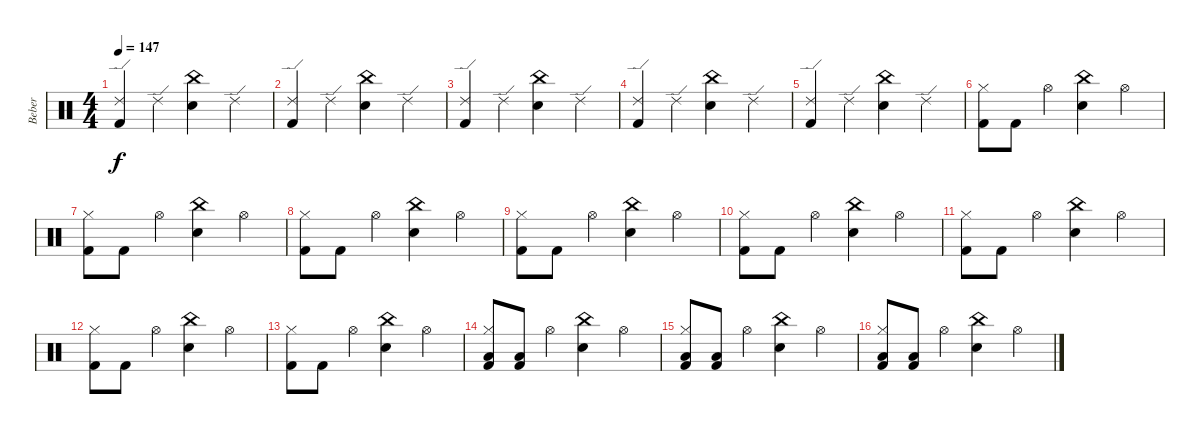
\track ("Beber" "Beber") {instrument percussion}
\staff {score}
\articulation defaults
\ts (4 4)
\tempo 147
\clef neutral
\ks c
("Ride (edge) 2" "Kick (hit) 2").4{dy f} "Ride (edge) 2".4 ("China (hit)" "Snare (hit) 2").4 "Ride (edge) 2".4 |
("Ride (edge) 2" "Kick (hit) 2").4 "Ride (edge) 2".4 ("China (hit)" "Snare (hit) 2").4 "Ride (edge) 2".4 |
("Ride (edge) 2" "Kick (hit) 2").4 "Ride (edge) 2".4 ("China (hit)" "Snare (hit) 2").4 "Ride (edge) 2".4 |
("Ride (edge) 2" "Kick (hit) 2").4 "Ride (edge) 2".4 ("China (hit)" "Snare (hit) 2").4 "Ride (edge) 2".4 |
("Ride (edge) 2" "Kick (hit) 2").4 "Ride (edge) 2".4 ("China (hit)" "Snare (hit) 2").4 "Ride (edge) 2".4 |
("Hi-Hat (closed)" "Kick (hit) 2").8 "Kick (hit) 2".8 "Hi-Hat (open)".4 ("China (hit)" "Snare (hit) 2").4 "Hi-Hat (open)".4 |
("Hi-Hat (closed)" "Kick (hit) 2").8 "Kick (hit) 2".8 "Hi-Hat (open)".4 ("China (hit)" "Snare (hit) 2").4 "Hi-Hat (open)".4 |
("Hi-Hat (closed)" "Kick (hit) 2").8 "Kick (hit) 2".8 "Hi-Hat (open)".4 ("China (hit)" "Snare (hit) 2").4 "Hi-Hat (open)".4 |
("Hi-Hat (closed)" "Kick (hit) 2").8 "Kick (hit) 2".8 "Hi-Hat (open)".4 ("China (hit)" "Snare (hit) 2").4 "Hi-Hat (open)".4 |
("Hi-Hat (closed)" "Kick (hit) 2").8 "Kick (hit) 2".8 "Hi-Hat (open)".4 ("China (hit)" "Snare (hit) 2").4 "Hi-Hat (open)".4 |
("Hi-Hat (closed)" "Kick (hit) 2").8 "Kick (hit) 2".8 "Hi-Hat (open)".4 ("China (hit)" "Snare (hit) 2").4 "Hi-Hat (open)".4 |
("Hi-Hat (closed)" "Kick (hit) 2").8 "Kick (hit) 2".8 "Hi-Hat (open)".4 ("China (hit)" "Snare (hit) 2").4 "Hi-Hat (open)".4 |
("Hi-Hat (closed)" "Kick (hit) 2").8 "Kick (hit) 2".8 "Hi-Hat (open)".4 ("China (hit)" "Snare (hit) 2").4 "Hi-Hat (open)".4 |
("Hi-Hat (closed)" "Low Floor Tom (hit)" "Kick (hit) 2").8 ("Low Floor Tom (hit)" "Kick (hit) 2").8 "Hi-Hat (open)".4 ("China (hit)" "Snare (hit) 2").4 "Hi-Hat (open)".4 |
("Hi-Hat (closed)" "Low Floor Tom (hit)" "Kick (hit) 2").8 ("Low Floor Tom (hit)" "Kick (hit) 2").8 "Hi-Hat (open)".4 ("China (hit)" "Snare (hit) 2").4 "Hi-Hat (open)".4 |
("Hi-Hat (closed)" "Low Floor Tom (hit)" "Kick (hit) 2").8 ("Low Floor Tom (hit)" "Kick (hit) 2").8 "Hi-Hat (open)".4 ("China (hit)" "Snare (hit) 2").4 "Hi-Hat (open)".4
